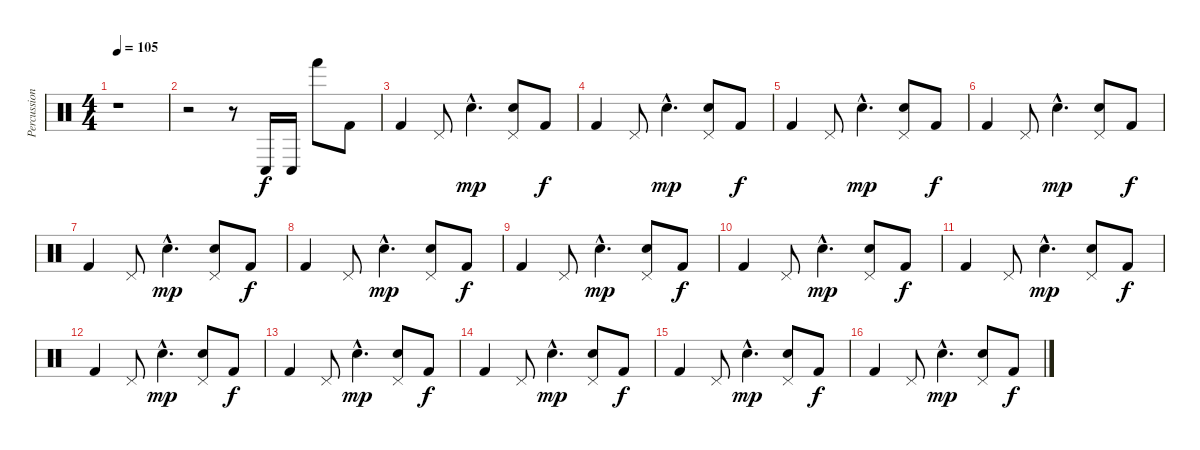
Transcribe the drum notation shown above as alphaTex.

\track ("Percussion" "Percussion") {instrument percussion}
\staff {score}
\articulation defaults
\ts (4 4)
\tempo 105
\clef neutral
\ks c
r.1{dy f} |
r.2 r.8 "Conga low (hit)".16 "Conga low (hit)".16 "Hand (hit)".8 "Kick (hit) 2".8 |
"Kick (hit) 2".4 "Pedal Hi-Hat (hit)".8 "Hand Clap (hit)"{hac}.4{d dy mp} ("Pedal Hi-Hat (hit)" "Hand Clap (hit)").8 "Kick (hit) 2".8{dy f} |
"Kick (hit) 2".4 "Pedal Hi-Hat (hit)".8 "Hand Clap (hit)"{hac}.4{d dy mp} ("Pedal Hi-Hat (hit)" "Hand Clap (hit)").8 "Kick (hit) 2".8{dy f} |
"Kick (hit) 2".4 "Pedal Hi-Hat (hit)".8 "Hand Clap (hit)"{hac}.4{d dy mp} ("Pedal Hi-Hat (hit)" "Hand Clap (hit)").8 "Kick (hit) 2".8{dy f} |
"Kick (hit) 2".4 "Pedal Hi-Hat (hit)".8 "Hand Clap (hit)"{hac}.4{d dy mp} ("Pedal Hi-Hat (hit)" "Hand Clap (hit)").8 "Kick (hit) 2".8{dy f} |
"Kick (hit) 2".4 "Pedal Hi-Hat (hit)".8 "Hand Clap (hit)"{hac}.4{d dy mp} ("Pedal Hi-Hat (hit)" "Hand Clap (hit)").8 "Kick (hit) 2".8{dy f} |
"Kick (hit) 2".4 "Pedal Hi-Hat (hit)".8 "Hand Clap (hit)"{hac}.4{d dy mp} ("Pedal Hi-Hat (hit)" "Hand Clap (hit)").8 "Kick (hit) 2".8{dy f} |
"Kick (hit) 2".4 "Pedal Hi-Hat (hit)".8 "Hand Clap (hit)"{hac}.4{d dy mp} ("Pedal Hi-Hat (hit)" "Hand Clap (hit)").8 "Kick (hit) 2".8{dy f} |
"Kick (hit) 2".4 "Pedal Hi-Hat (hit)".8 "Hand Clap (hit)"{hac}.4{d dy mp} ("Pedal Hi-Hat (hit)" "Hand Clap (hit)").8 "Kick (hit) 2".8{dy f} |
"Kick (hit) 2".4 "Pedal Hi-Hat (hit)".8 "Hand Clap (hit)"{hac}.4{d dy mp} ("Pedal Hi-Hat (hit)" "Hand Clap (hit)").8 "Kick (hit) 2".8{dy f} |
"Kick (hit) 2".4 "Pedal Hi-Hat (hit)".8 "Hand Clap (hit)"{hac}.4{d dy mp} ("Pedal Hi-Hat (hit)" "Hand Clap (hit)").8 "Kick (hit) 2".8{dy f} |
"Kick (hit) 2".4 "Pedal Hi-Hat (hit)".8 "Hand Clap (hit)"{hac}.4{d dy mp} ("Pedal Hi-Hat (hit)" "Hand Clap (hit)").8 "Kick (hit) 2".8{dy f} |
"Kick (hit) 2".4 "Pedal Hi-Hat (hit)".8 "Hand Clap (hit)"{hac}.4{d dy mp} ("Pedal Hi-Hat (hit)" "Hand Clap (hit)").8 "Kick (hit) 2".8{dy f} |
"Kick (hit) 2".4 "Pedal Hi-Hat (hit)".8 "Hand Clap (hit)"{hac}.4{d dy mp} ("Pedal Hi-Hat (hit)" "Hand Clap (hit)").8 "Kick (hit) 2".8{dy f} |
"Kick (hit) 2".4 "Pedal Hi-Hat (hit)".8 "Hand Clap (hit)"{hac}.4{d dy mp} ("Pedal Hi-Hat (hit)" "Hand Clap (hit)").8 "Kick (hit) 2".8{dy f}
